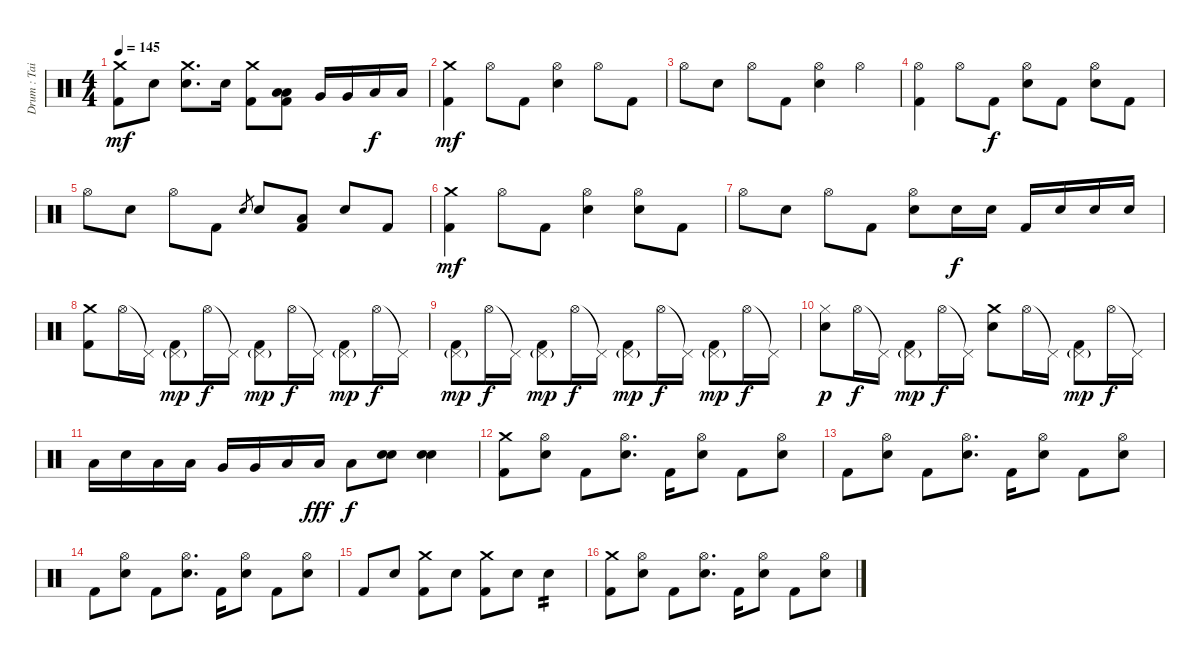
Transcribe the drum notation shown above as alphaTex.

\track ("Drum : Tainaka Ritsu" "Drum : Tai") {instrument percussion}
\staff {score}
\articulation defaults
\ts (4 4)
\tempo 145
\clef neutral
\ks c
("Crash medium (hit)" "Kick (hit) 2").8{dy mf} "Electric Snare (hit)".8 ("Crash medium (hit)" "Electric Snare (hit)").8{d} "Electric Snare (hit)".16 ("Crash medium (hit)" "Kick (hit) 2").8 ("Low Tom (hit)" "Low Tom (hit)" "Kick (hit) 2").8 "Very Low Tom (hit)".16 "Very Low Tom (hit)".16 "Low Floor Tom (hit)".16{dy f} "Low Floor Tom (hit)".16 |
("Crash medium (hit)" "Kick (hit) 2").4{dy mf} "Hi-Hat (open)".8 "Kick (hit) 2".8 ("Hi-Hat (open)" "Electric Snare (hit)").4 "Hi-Hat (open)".8 "Kick (hit) 2".8 |
"Hi-Hat (open)".8 "Electric Snare (hit)".8 "Hi-Hat (open)".8 "Kick (hit) 2".8 ("Hi-Hat (open)" "Electric Snare (hit)").4 "Hi-Hat (open)".4 |
("Hi-Hat (open)" "Kick (hit) 2").4 "Hi-Hat (open)".8 "Kick (hit) 2".8{dy f} ("Hi-Hat (open)" "Electric Snare (hit)").8 "Kick (hit) 2".8 ("Hi-Hat (open)" "Electric Snare (hit)").8 "Kick (hit) 2".8 |
"Hi-Hat (open)".8 "Electric Snare (hit)".8 "Hi-Hat (open)".8 "Kick (hit) 2".8 "Electric Snare (hit)".8{gr} "Electric Snare (hit)".8 ("Low Floor Tom (hit)" "Kick (hit) 2").8 "Electric Snare (hit)".8 "Kick (hit) 2".8 |
("Crash medium (hit)" "Kick (hit) 2").4{dy mf} "Hi-Hat (open)".8 "Kick (hit) 2".8 ("Hi-Hat (open)" "Electric Snare (hit)").4 ("Hi-Hat (open)" "Electric Snare (hit)").8 "Kick (hit) 2".8 |
"Hi-Hat (open)".8 "Electric Snare (hit)".8 "Hi-Hat (open)".8 "Kick (hit) 2".8 ("Hi-Hat (open)" "Electric Snare (hit)").8 "Electric Snare (hit)".16{dy f} "Electric Snare (hit)".16 "Kick (hit) 2".16 "Electric Snare (hit)".16 "Electric Snare (hit)".16 "Electric Snare (hit)".16 |
("Crash medium (hit)" "Kick (hit) 2").8 "Hi-Hat (open)".16 "Pedal Hi-Hat (hit)"{t}.16 ("Pedal Hi-Hat (hit)"{g} "Kick (hit) 2").8{dy mp} "Hi-Hat (open)".16{dy f} "Pedal Hi-Hat (hit)"{t}.16 ("Pedal Hi-Hat (hit)"{g} "Kick (hit) 2").8{dy mp} "Hi-Hat (open)".16{dy f} "Pedal Hi-Hat (hit)"{t}.16 ("Pedal Hi-Hat (hit)"{g} "Kick (hit) 2").8{dy mp} "Hi-Hat (open)".16{dy f} "Pedal Hi-Hat (hit)"{t}.16 |
("Pedal Hi-Hat (hit)"{g} "Kick (hit) 2").8{dy mp} "Hi-Hat (open)".16{dy f} "Pedal Hi-Hat (hit)"{t}.16 ("Pedal Hi-Hat (hit)"{g} "Kick (hit) 2").8{dy mp} "Hi-Hat (open)".16{dy f} "Pedal Hi-Hat (hit)"{t}.16 ("Pedal Hi-Hat (hit)"{g} "Kick (hit) 2").8{dy mp} "Hi-Hat (open)".16{dy f} "Pedal Hi-Hat (hit)"{t}.16 ("Pedal Hi-Hat (hit)"{g} "Kick (hit) 2").8{dy mp} "Hi-Hat (open)".16{dy f} "Pedal Hi-Hat (hit)"{t}.16 |
("Hi-Hat (closed)" "Electric Snare (hit)").8{dy p} "Hi-Hat (open)".16{dy f} "Pedal Hi-Hat (hit)"{t}.16 ("Pedal Hi-Hat (hit)"{g} "Kick (hit) 2").8{dy mp} "Hi-Hat (open)".16{dy f} "Pedal Hi-Hat (hit)"{t}.16 ("Crash medium (hit)" "Electric Snare (hit)").8 "Hi-Hat (open)".16 "Pedal Hi-Hat (hit)"{t}.16 ("Pedal Hi-Hat (hit)"{g} "Kick (hit) 2").8{dy mp} "Hi-Hat (open)".16{dy f} "Pedal Hi-Hat (hit)"{t}.16 |
"Low Tom (hit)".16 "Electric Snare (hit)".16 "Low Tom (hit)".16 "Low Tom (hit)".16 "Very Low Tom (hit)".16 "Very Low Tom (hit)".16 "Low Floor Tom (hit)".16 "Low Floor Tom (hit)".16{dy fff} "Low Floor Tom (hit)".8{dy f} ("Electric Snare (hit)" "Electric Snare (hit)").8 ("Electric Snare (hit)" "Electric Snare (hit)").4 |
("Crash medium (hit)" "Kick (hit) 2").8 ("Hi-Hat (open)" "Electric Snare (hit)").8 "Kick (hit) 2".8 ("Hi-Hat (open)" "Electric Snare (hit)").8{d} "Kick (hit) 2".16 ("Hi-Hat (open)" "Electric Snare (hit)").8 "Kick (hit) 2".8 ("Hi-Hat (open)" "Electric Snare (hit)").8 |
"Kick (hit) 2".8 ("Hi-Hat (open)" "Electric Snare (hit)").8 "Kick (hit) 2".8 ("Hi-Hat (open)" "Electric Snare (hit)").8{d} "Kick (hit) 2".16 ("Hi-Hat (open)" "Electric Snare (hit)").8 "Kick (hit) 2".8 ("Hi-Hat (open)" "Electric Snare (hit)").8 |
"Kick (hit) 2".8 ("Hi-Hat (open)" "Electric Snare (hit)").8 "Kick (hit) 2".8 ("Hi-Hat (open)" "Electric Snare (hit)").8{d} "Kick (hit) 2".16 ("Hi-Hat (open)" "Electric Snare (hit)").8 "Kick (hit) 2".8 ("Hi-Hat (open)" "Electric Snare (hit)").8 |
"Kick (hit) 2".8 "Electric Snare (hit)".8 ("Crash medium (hit)" "Kick (hit) 2").8 "Electric Snare (hit)".8 ("Crash medium (hit)" "Kick (hit) 2").8 "Electric Snare (hit)".8 "Electric Snare (hit)".4{tp 2} |
("Crash medium (hit)" "Kick (hit) 2").8 ("Hi-Hat (open)" "Electric Snare (hit)").8 "Kick (hit) 2".8 ("Hi-Hat (open)" "Electric Snare (hit)").8{d} "Kick (hit) 2".16 ("Hi-Hat (open)" "Electric Snare (hit)").8 "Kick (hit) 2".8 ("Hi-Hat (open)" "Electric Snare (hit)").8
